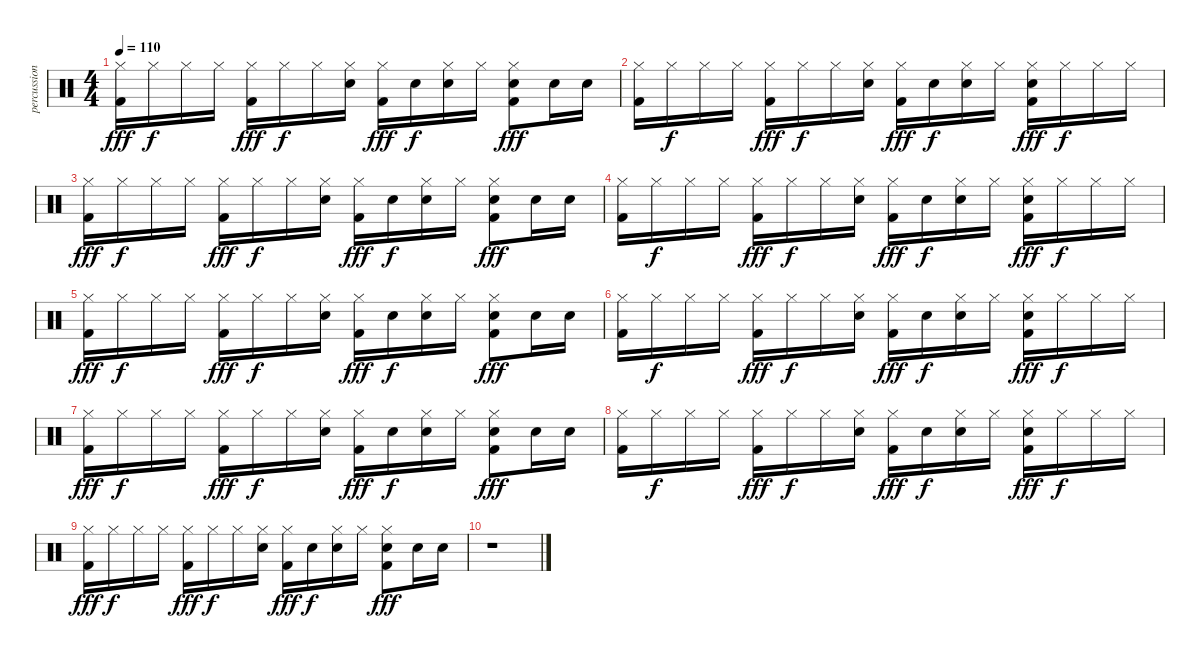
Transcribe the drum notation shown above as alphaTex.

\track ("percussion []" "percussion") {instrument percussion}
\staff {score}
\articulation defaults
\ts (4 4)
\tempo 110
\clef neutral
\ks c
("Hi-Hat (closed)" "Kick (hit) 2").16{dy fff} "Hi-Hat (closed)".16{dy f} "Hi-Hat (closed)".16 "Hi-Hat (closed)".16 ("Hi-Hat (closed)" "Kick (hit) 2").16{dy fff} "Hi-Hat (closed)".16{dy f} "Hi-Hat (closed)".16 ("Electric Snare (hit)" "Hi-Hat (closed)").16 ("Hi-Hat (closed)" "Kick (hit) 2").16{dy fff} "Electric Snare (hit)".16{dy f} ("Electric Snare (hit)" "Hi-Hat (closed)").16 "Hi-Hat (closed)".16 ("Electric Snare (hit)" "Hi-Hat (closed)" "Kick (hit) 2").8{dy fff} "Electric Snare (hit)".16 "Electric Snare (hit)".16 |
("Hi-Hat (closed)" "Kick (hit) 2").16 "Hi-Hat (closed)".16{dy f} "Hi-Hat (closed)".16 "Hi-Hat (closed)".16 ("Hi-Hat (closed)" "Kick (hit) 2").16{dy fff} "Hi-Hat (closed)".16{dy f} "Hi-Hat (closed)".16 ("Electric Snare (hit)" "Hi-Hat (closed)").16 ("Hi-Hat (closed)" "Kick (hit) 2").16{dy fff} "Electric Snare (hit)".16{dy f} ("Electric Snare (hit)" "Hi-Hat (closed)").16 "Hi-Hat (closed)".16 ("Electric Snare (hit)" "Hi-Hat (closed)" "Kick (hit) 2").16{dy fff} "Hi-Hat (closed)".16{dy f} "Hi-Hat (closed)".16 "Hi-Hat (closed)".16 |
("Hi-Hat (closed)" "Kick (hit) 2").16{dy fff} "Hi-Hat (closed)".16{dy f} "Hi-Hat (closed)".16 "Hi-Hat (closed)".16 ("Hi-Hat (closed)" "Kick (hit) 2").16{dy fff} "Hi-Hat (closed)".16{dy f} "Hi-Hat (closed)".16 ("Electric Snare (hit)" "Hi-Hat (closed)").16 ("Hi-Hat (closed)" "Kick (hit) 2").16{dy fff} "Electric Snare (hit)".16{dy f} ("Electric Snare (hit)" "Hi-Hat (closed)").16 "Hi-Hat (closed)".16 ("Electric Snare (hit)" "Hi-Hat (closed)" "Kick (hit) 2").8{dy fff} "Electric Snare (hit)".16 "Electric Snare (hit)".16 |
("Hi-Hat (closed)" "Kick (hit) 2").16 "Hi-Hat (closed)".16{dy f} "Hi-Hat (closed)".16 "Hi-Hat (closed)".16 ("Hi-Hat (closed)" "Kick (hit) 2").16{dy fff} "Hi-Hat (closed)".16{dy f} "Hi-Hat (closed)".16 ("Electric Snare (hit)" "Hi-Hat (closed)").16 ("Hi-Hat (closed)" "Kick (hit) 2").16{dy fff} "Electric Snare (hit)".16{dy f} ("Electric Snare (hit)" "Hi-Hat (closed)").16 "Hi-Hat (closed)".16 ("Electric Snare (hit)" "Hi-Hat (closed)" "Kick (hit) 2").16{dy fff} "Hi-Hat (closed)".16{dy f} "Hi-Hat (closed)".16 "Hi-Hat (closed)".16 |
("Hi-Hat (closed)" "Kick (hit) 2").16{dy fff} "Hi-Hat (closed)".16{dy f} "Hi-Hat (closed)".16 "Hi-Hat (closed)".16 ("Hi-Hat (closed)" "Kick (hit) 2").16{dy fff} "Hi-Hat (closed)".16{dy f} "Hi-Hat (closed)".16 ("Electric Snare (hit)" "Hi-Hat (closed)").16 ("Hi-Hat (closed)" "Kick (hit) 2").16{dy fff} "Electric Snare (hit)".16{dy f} ("Electric Snare (hit)" "Hi-Hat (closed)").16 "Hi-Hat (closed)".16 ("Electric Snare (hit)" "Hi-Hat (closed)" "Kick (hit) 2").8{dy fff} "Electric Snare (hit)".16 "Electric Snare (hit)".16 |
("Hi-Hat (closed)" "Kick (hit) 2").16 "Hi-Hat (closed)".16{dy f} "Hi-Hat (closed)".16 "Hi-Hat (closed)".16 ("Hi-Hat (closed)" "Kick (hit) 2").16{dy fff} "Hi-Hat (closed)".16{dy f} "Hi-Hat (closed)".16 ("Electric Snare (hit)" "Hi-Hat (closed)").16 ("Hi-Hat (closed)" "Kick (hit) 2").16{dy fff} "Electric Snare (hit)".16{dy f} ("Electric Snare (hit)" "Hi-Hat (closed)").16 "Hi-Hat (closed)".16 ("Electric Snare (hit)" "Hi-Hat (closed)" "Kick (hit) 2").16{dy fff} "Hi-Hat (closed)".16{dy f} "Hi-Hat (closed)".16 "Hi-Hat (closed)".16 |
("Hi-Hat (closed)" "Kick (hit) 2").16{dy fff} "Hi-Hat (closed)".16{dy f} "Hi-Hat (closed)".16 "Hi-Hat (closed)".16 ("Hi-Hat (closed)" "Kick (hit) 2").16{dy fff} "Hi-Hat (closed)".16{dy f} "Hi-Hat (closed)".16 ("Electric Snare (hit)" "Hi-Hat (closed)").16 ("Hi-Hat (closed)" "Kick (hit) 2").16{dy fff} "Electric Snare (hit)".16{dy f} ("Electric Snare (hit)" "Hi-Hat (closed)").16 "Hi-Hat (closed)".16 ("Electric Snare (hit)" "Hi-Hat (closed)" "Kick (hit) 2").8{dy fff} "Electric Snare (hit)".16 "Electric Snare (hit)".16 |
("Hi-Hat (closed)" "Kick (hit) 2").16 "Hi-Hat (closed)".16{dy f} "Hi-Hat (closed)".16 "Hi-Hat (closed)".16 ("Hi-Hat (closed)" "Kick (hit) 2").16{dy fff} "Hi-Hat (closed)".16{dy f} "Hi-Hat (closed)".16 ("Electric Snare (hit)" "Hi-Hat (closed)").16 ("Hi-Hat (closed)" "Kick (hit) 2").16{dy fff} "Electric Snare (hit)".16{dy f} ("Electric Snare (hit)" "Hi-Hat (closed)").16 "Hi-Hat (closed)".16 ("Electric Snare (hit)" "Hi-Hat (closed)" "Kick (hit) 2").16{dy fff} "Hi-Hat (closed)".16{dy f} "Hi-Hat (closed)".16 "Hi-Hat (closed)".16 |
("Hi-Hat (closed)" "Kick (hit) 2").16{dy fff} "Hi-Hat (closed)".16{dy f} "Hi-Hat (closed)".16 "Hi-Hat (closed)".16 ("Hi-Hat (closed)" "Kick (hit) 2").16{dy fff} "Hi-Hat (closed)".16{dy f} "Hi-Hat (closed)".16 ("Electric Snare (hit)" "Hi-Hat (closed)").16 ("Hi-Hat (closed)" "Kick (hit) 2").16{dy fff} "Electric Snare (hit)".16{dy f} ("Electric Snare (hit)" "Hi-Hat (closed)").16 "Hi-Hat (closed)".16 ("Electric Snare (hit)" "Hi-Hat (closed)" "Kick (hit) 2").8{dy fff} "Electric Snare (hit)".16 "Electric Snare (hit)".16 |
r.1
